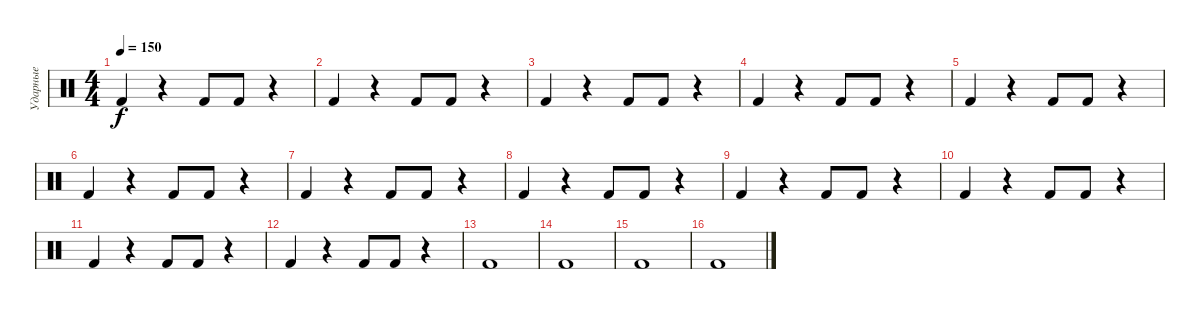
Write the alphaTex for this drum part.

\track ("Ударные" "Ударные") {instrument percussion}
\staff {score}
\articulation defaults
\ts (4 4)
\tempo 150
\clef neutral
\ks c "Kick (hit) 2".4{dy f}
r.4 "Kick (hit) 2".8 "Kick (hit) 2".8 r.4 |
"Kick (hit) 2".4 r.4 "Kick (hit) 2".8 "Kick (hit) 2".8 r.4 |
"Kick (hit) 2".4 r.4 "Kick (hit) 2".8 "Kick (hit) 2".8 r.4 |
"Kick (hit) 2".4 r.4 "Kick (hit) 2".8 "Kick (hit) 2".8 r.4 |
"Kick (hit) 2".4 r.4 "Kick (hit) 2".8 "Kick (hit) 2".8 r.4 |
"Kick (hit) 2".4 r.4 "Kick (hit) 2".8 "Kick (hit) 2".8 r.4 |
"Kick (hit) 2".4 r.4 "Kick (hit) 2".8 "Kick (hit) 2".8 r.4 |
"Kick (hit) 2".4 r.4 "Kick (hit) 2".8 "Kick (hit) 2".8 r.4 |
"Kick (hit) 2".4 r.4 "Kick (hit) 2".8 "Kick (hit) 2".8 r.4 |
"Kick (hit) 2".4 r.4 "Kick (hit) 2".8 "Kick (hit) 2".8 r.4 |
"Kick (hit) 2".4 r.4 "Kick (hit) 2".8 "Kick (hit) 2".8 r.4 |
"Kick (hit) 2".4 r.4 "Kick (hit) 2".8 "Kick (hit) 2".8 r.4 |
"Kick (hit) 2".1 |
"Kick (hit) 2".1 |
"Kick (hit) 2".1 |
"Kick (hit) 2".1
